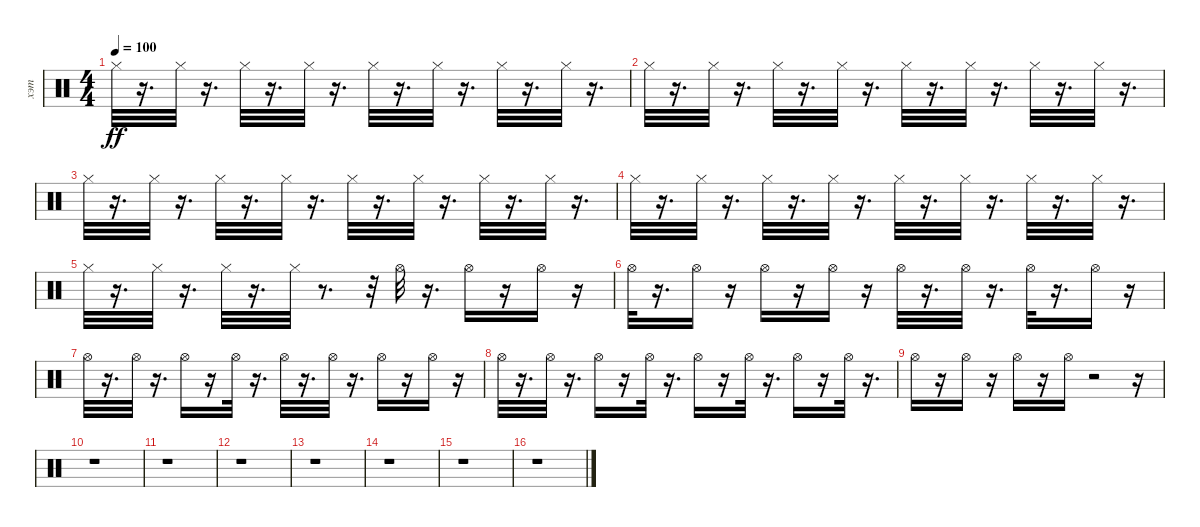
\track ("хэт" "хэт") {instrument percussion}
\staff {score}
\articulation defaults
\ts (4 4)
\tempo 100
\clef neutral
\ks c "Hi-Hat (closed)".32{dy ff}
r.16{d} "Hi-Hat (closed)".32 r.16{d} "Hi-Hat (closed)".32 r.16{d} "Hi-Hat (closed)".32 r.16{d} "Hi-Hat (closed)".32 r.16{d} "Hi-Hat (closed)".32 r.16{d} "Hi-Hat (closed)".32 r.16{d} "Hi-Hat (closed)".32 r.16{d} |
"Hi-Hat (closed)".32 r.16{d} "Hi-Hat (closed)".32 r.16{d} "Hi-Hat (closed)".32 r.16{d} "Hi-Hat (closed)".32 r.16{d} "Hi-Hat (closed)".32 r.16{d} "Hi-Hat (closed)".32 r.16{d} "Hi-Hat (closed)".32 r.16{d} "Hi-Hat (closed)".32 r.16{d} |
"Hi-Hat (closed)".32 r.16{d} "Hi-Hat (closed)".32 r.16{d} "Hi-Hat (closed)".32 r.16{d} "Hi-Hat (closed)".32 r.16{d} "Hi-Hat (closed)".32 r.16{d} "Hi-Hat (closed)".32 r.16{d} "Hi-Hat (closed)".32 r.16{d} "Hi-Hat (closed)".32 r.16{d} |
"Hi-Hat (closed)".32 r.16{d} "Hi-Hat (closed)".32 r.16{d} "Hi-Hat (closed)".32 r.16{d} "Hi-Hat (closed)".32 r.16{d} "Hi-Hat (closed)".32 r.16{d} "Hi-Hat (closed)".32 r.16{d} "Hi-Hat (closed)".32 r.16{d} "Hi-Hat (closed)".32 r.16{d} |
"Hi-Hat (closed)".32 r.16{d} "Hi-Hat (closed)".32 r.16{d} "Hi-Hat (closed)".32 r.16{d} "Hi-Hat (closed)".32 r.8{d} r.32 "Hi-Hat (open)".32 r.16{d} "Hi-Hat (open)".16 r.16 "Hi-Hat (open)".16 r.16 |
"Hi-Hat (open)".32 r.16{d} "Hi-Hat (open)".16 r.16 "Hi-Hat (open)".16 r.16 "Hi-Hat (open)".16 r.16 "Hi-Hat (open)".32 r.16{d} "Hi-Hat (open)".32 r.16{d} "Hi-Hat (open)".32 r.16{d} "Hi-Hat (open)".16 r.16 |
"Hi-Hat (open)".32 r.16{d} "Hi-Hat (open)".32 r.16{d} "Hi-Hat (open)".16 r.16 "Hi-Hat (open)".32 r.16{d} "Hi-Hat (open)".32 r.16{d} "Hi-Hat (open)".32 r.16{d} "Hi-Hat (open)".16 r.16 "Hi-Hat (open)".16 r.16 |
"Hi-Hat (open)".32 r.16{d} "Hi-Hat (open)".32 r.16{d} "Hi-Hat (open)".16 r.16 "Hi-Hat (open)".32 r.16{d} "Hi-Hat (open)".16 r.16 "Hi-Hat (open)".32 r.16{d} "Hi-Hat (open)".16 r.16 "Hi-Hat (open)".32 r.16{d} |
"Hi-Hat (open)".16 r.16 "Hi-Hat (open)".16 r.16 "Hi-Hat (open)".16 r.16 "Hi-Hat (open)".16 r.2 r.16 |
r.1 |
r.1 |
r.1 |
r.1 |
r.1 |
r.1 |
r.1
